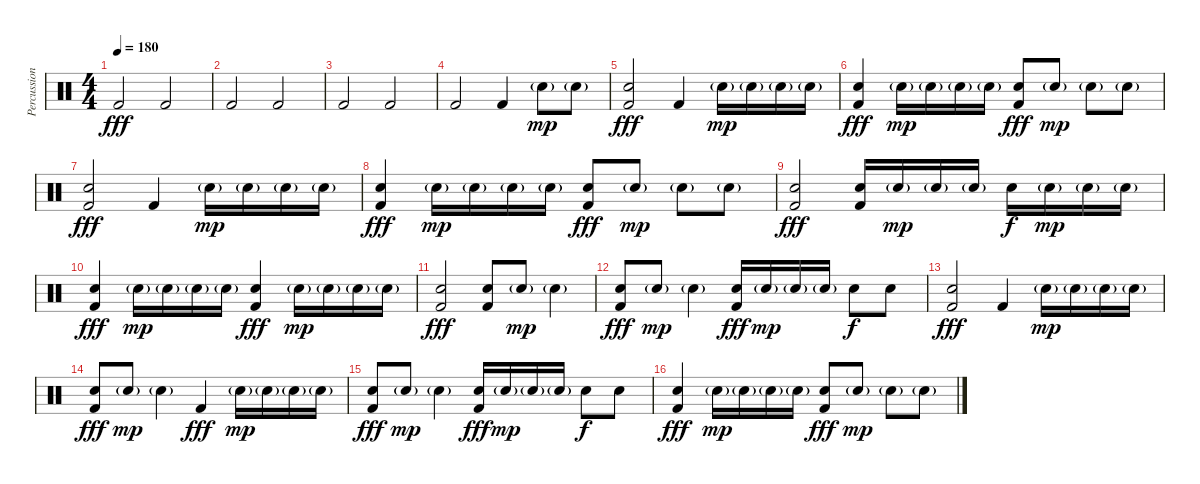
\track ("Percussion" "Percussion") {instrument percussion}
\staff {score}
\articulation defaults
\ts (4 4)
\tempo 180
\clef neutral
\ks c "Kick (hit) 2".2{dy fff} "Kick (hit) 2".2
|
"Kick (hit) 2".2 "Kick (hit) 2".2 |
"Kick (hit) 2".2 "Kick (hit) 2".2 |
"Kick (hit) 2".2 "Kick (hit) 2".4 "Electric Snare (hit)"{g}.8{dy mp} "Electric Snare (hit)"{g}.8 |
("Kick (hit) 2" "Electric Snare (hit)").2{dy fff} "Kick (hit) 2".4 "Electric Snare (hit)"{g}.16{dy mp} "Electric Snare (hit)"{g}.16 "Electric Snare (hit)"{g}.16 "Electric Snare (hit)"{g}.16 |
("Kick (hit) 2" "Electric Snare (hit)").4{dy fff} "Electric Snare (hit)"{g}.16{dy mp} "Electric Snare (hit)"{g}.16 "Electric Snare (hit)"{g}.16 "Electric Snare (hit)"{g}.16 ("Kick (hit) 2" "Electric Snare (hit)").8{dy fff} "Electric Snare (hit)"{g}.8{dy mp} "Electric Snare (hit)"{g}.8 "Electric Snare (hit)"{g}.8 |
("Kick (hit) 2" "Electric Snare (hit)").2{dy fff} "Kick (hit) 2".4 "Electric Snare (hit)"{g}.16{dy mp} "Electric Snare (hit)"{g}.16 "Electric Snare (hit)"{g}.16 "Electric Snare (hit)"{g}.16 |
("Kick (hit) 2" "Electric Snare (hit)").4{dy fff} "Electric Snare (hit)"{g}.16{dy mp} "Electric Snare (hit)"{g}.16 "Electric Snare (hit)"{g}.16 "Electric Snare (hit)"{g}.16 ("Kick (hit) 2" "Electric Snare (hit)").8{dy fff} "Electric Snare (hit)"{g}.8{dy mp} "Electric Snare (hit)"{g}.8 "Electric Snare (hit)"{g}.8 |
("Kick (hit) 2" "Electric Snare (hit)").2{dy fff} ("Kick (hit) 2" "Electric Snare (hit)").16 "Electric Snare (hit)"{g}.16{dy mp} "Electric Snare (hit)"{g}.16 "Electric Snare (hit)"{g}.16 "Electric Snare (hit)".16{dy f} "Electric Snare (hit)"{g}.16{dy mp} "Electric Snare (hit)"{g}.16 "Electric Snare (hit)"{g}.16 |
("Kick (hit) 2" "Electric Snare (hit)").4{dy fff} "Electric Snare (hit)"{g}.16{dy mp} "Electric Snare (hit)"{g}.16 "Electric Snare (hit)"{g}.16 "Electric Snare (hit)"{g}.16 ("Kick (hit) 2" "Electric Snare (hit)").4{dy fff} "Electric Snare (hit)"{g}.16{dy mp} "Electric Snare (hit)"{g}.16 "Electric Snare (hit)"{g}.16 "Electric Snare (hit)"{g}.16 |
("Kick (hit) 2" "Electric Snare (hit)").2{dy fff} ("Kick (hit) 2" "Electric Snare (hit)").8 "Electric Snare (hit)"{g}.8{dy mp} "Electric Snare (hit)"{g}.4 |
("Kick (hit) 2" "Electric Snare (hit)").8{dy fff} "Electric Snare (hit)"{g}.8{dy mp} "Electric Snare (hit)"{g}.4 ("Kick (hit) 2" "Electric Snare (hit)").16{dy fff} "Electric Snare (hit)"{g}.16{dy mp} "Electric Snare (hit)"{g}.16 "Electric Snare (hit)"{g}.16 "Electric Snare (hit)".8{dy f} "Electric Snare (hit)".8 |
("Kick (hit) 2" "Electric Snare (hit)").2{dy fff} "Kick (hit) 2".4 "Electric Snare (hit)"{g}.16{dy mp} "Electric Snare (hit)"{g}.16 "Electric Snare (hit)"{g}.16 "Electric Snare (hit)"{g}.16 |
("Kick (hit) 2" "Electric Snare (hit)").8{dy fff} "Electric Snare (hit)"{g}.8{dy mp} "Electric Snare (hit)"{g}.4 "Kick (hit) 2".4{dy fff} "Electric Snare (hit)"{g}.16{dy mp} "Electric Snare (hit)"{g}.16 "Electric Snare (hit)"{g}.16 "Electric Snare (hit)"{g}.16 |
("Kick (hit) 2" "Electric Snare (hit)").8{dy fff} "Electric Snare (hit)"{g}.8{dy mp} "Electric Snare (hit)"{g}.4 ("Kick (hit) 2" "Electric Snare (hit)").16{dy fff} "Electric Snare (hit)"{g}.16{dy mp} "Electric Snare (hit)"{g}.16 "Electric Snare (hit)"{g}.16 "Electric Snare (hit)".8{dy f} "Electric Snare (hit)".8 |
("Kick (hit) 2" "Electric Snare (hit)").4{dy fff} "Electric Snare (hit)"{g}.16{dy mp} "Electric Snare (hit)"{g}.16 "Electric Snare (hit)"{g}.16 "Electric Snare (hit)"{g}.16 ("Kick (hit) 2" "Electric Snare (hit)").8{dy fff} "Electric Snare (hit)"{g}.8{dy mp} "Electric Snare (hit)"{g}.8 "Electric Snare (hit)"{g}.8
